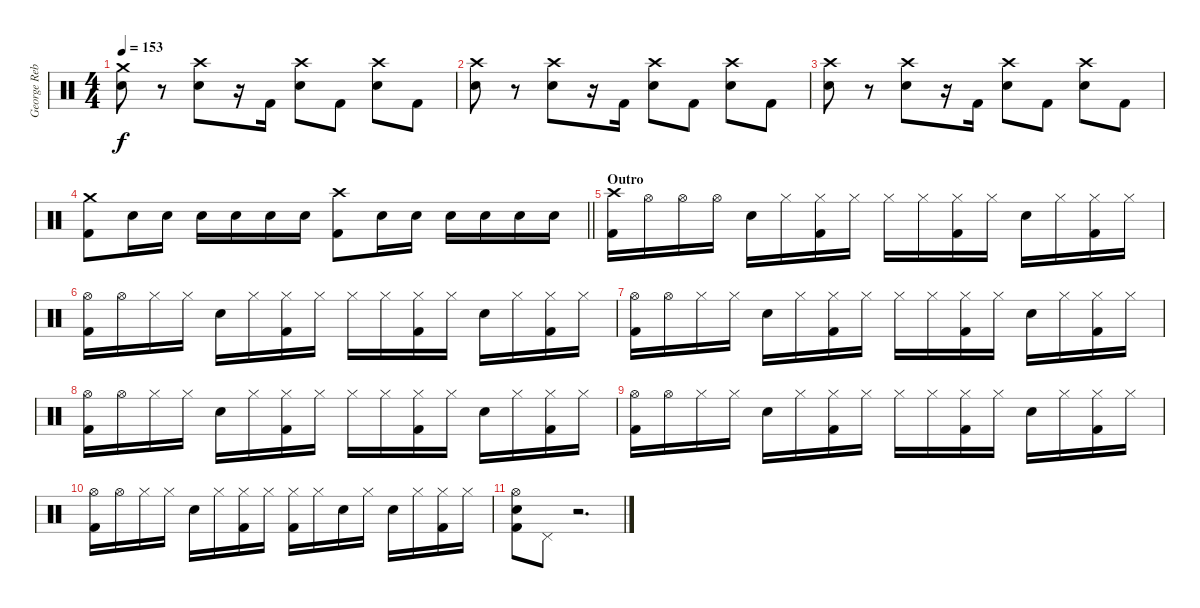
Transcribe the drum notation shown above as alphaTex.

\track ("George Rebelo (Drums)" "George Reb") {instrument percussion}
\staff {score}
\articulation defaults
\ts (4 4)
\tempo 153
\clef neutral
\ks c
("Crash medium (hit)" "Electric Snare (hit)").8{dy f} r.8 ("Crash high (hit)" "Electric Snare (hit)").8 r.16 "Kick (hit) 2".16 ("Crash high (hit)" "Electric Snare (hit)").8 "Kick (hit) 2".8 ("Crash high (hit)" "Electric Snare (hit)").8 "Kick (hit) 2".8 |
("Crash high (hit)" "Electric Snare (hit)").8 r.8 ("Crash high (hit)" "Electric Snare (hit)").8 r.16 "Kick (hit) 2".16 ("Crash high (hit)" "Electric Snare (hit)").8 "Kick (hit) 2".8 ("Crash high (hit)" "Electric Snare (hit)").8 "Kick (hit) 2".8 |
("Crash high (hit)" "Electric Snare (hit)").8 r.8 ("Crash high (hit)" "Electric Snare (hit)").8 r.16 "Kick (hit) 2".16 ("Crash high (hit)" "Electric Snare (hit)").8 "Kick (hit) 2".8 ("Crash high (hit)" "Electric Snare (hit)").8 "Kick (hit) 2".8 |
\barLineRight lightlight
("Crash medium (hit)" "Kick (hit) 2").8 "Electric Snare (hit)".16 "Electric Snare (hit)".16 "Electric Snare (hit)".16 "Electric Snare (hit)".16 "Electric Snare (hit)".16 "Electric Snare (hit)".16 ("Crash high (hit)" "Kick (hit) 2").8 "Electric Snare (hit)".16 "Electric Snare (hit)".16 "Electric Snare (hit)".16 "Electric Snare (hit)".16 "Electric Snare (hit)".16 "Electric Snare (hit)".16 |
\section ("" "Outro")
("Crash high (hit)" "Kick (hit) 2").16 "Hi-Hat (open)".16 "Hi-Hat (open)".16 "Hi-Hat (open)".16 "Electric Snare (hit)".16 "Hi-Hat (closed)".16 ("Hi-Hat (closed)" "Kick (hit) 2").16 "Hi-Hat (closed)".16 "Hi-Hat (closed)".16 "Hi-Hat (closed)".16 ("Hi-Hat (closed)" "Kick (hit) 2").16 "Hi-Hat (closed)".16 "Electric Snare (hit)".16 "Hi-Hat (closed)".16 ("Hi-Hat (closed)" "Kick (hit) 2").16 "Hi-Hat (closed)".16 |
("Hi-Hat (open)" "Kick (hit) 2").16 "Hi-Hat (open)".16 "Hi-Hat (closed)".16 "Hi-Hat (closed)".16 "Electric Snare (hit)".16 "Hi-Hat (closed)".16 ("Hi-Hat (closed)" "Kick (hit) 2").16 "Hi-Hat (closed)".16 "Hi-Hat (closed)".16 "Hi-Hat (closed)".16 ("Hi-Hat (closed)" "Kick (hit) 2").16 "Hi-Hat (closed)".16 "Electric Snare (hit)".16 "Hi-Hat (closed)".16 ("Hi-Hat (closed)" "Kick (hit) 2").16 "Hi-Hat (closed)".16 |
("Hi-Hat (open)" "Kick (hit) 2").16 "Hi-Hat (open)".16 "Hi-Hat (closed)".16 "Hi-Hat (closed)".16 "Electric Snare (hit)".16 "Hi-Hat (closed)".16 ("Hi-Hat (closed)" "Kick (hit) 2").16 "Hi-Hat (closed)".16 "Hi-Hat (closed)".16 "Hi-Hat (closed)".16 ("Hi-Hat (closed)" "Kick (hit) 2").16 "Hi-Hat (closed)".16 "Electric Snare (hit)".16 "Hi-Hat (closed)".16 ("Hi-Hat (closed)" "Kick (hit) 2").16 "Hi-Hat (closed)".16 |
("Hi-Hat (open)" "Kick (hit) 2").16 "Hi-Hat (open)".16 "Hi-Hat (closed)".16 "Hi-Hat (closed)".16 "Electric Snare (hit)".16 "Hi-Hat (closed)".16 ("Hi-Hat (closed)" "Kick (hit) 2").16 "Hi-Hat (closed)".16 "Hi-Hat (closed)".16 "Hi-Hat (closed)".16 ("Hi-Hat (closed)" "Kick (hit) 2").16 "Hi-Hat (closed)".16 "Electric Snare (hit)".16 "Hi-Hat (closed)".16 ("Hi-Hat (closed)" "Kick (hit) 2").16 "Hi-Hat (closed)".16 |
("Hi-Hat (open)" "Kick (hit) 2").16 "Hi-Hat (open)".16 "Hi-Hat (closed)".16 "Hi-Hat (closed)".16 "Electric Snare (hit)".16 "Hi-Hat (closed)".16 ("Hi-Hat (closed)" "Kick (hit) 2").16 "Hi-Hat (closed)".16 "Hi-Hat (closed)".16 "Hi-Hat (closed)".16 ("Hi-Hat (closed)" "Kick (hit) 2").16 "Hi-Hat (closed)".16 "Electric Snare (hit)".16 "Hi-Hat (closed)".16 ("Hi-Hat (closed)" "Kick (hit) 2").16 "Hi-Hat (closed)".16 |
("Hi-Hat (open)" "Kick (hit) 2").16 "Hi-Hat (open)".16 "Hi-Hat (closed)".16 "Hi-Hat (closed)".16 "Electric Snare (hit)".16 "Hi-Hat (closed)".16 ("Hi-Hat (closed)" "Kick (hit) 2").16 "Hi-Hat (closed)".16 ("Hi-Hat (closed)" "Kick (hit) 2").16 "Hi-Hat (closed)".16 "Electric Snare (hit)".16 "Hi-Hat (closed)".16 "Electric Snare (hit)".16 "Hi-Hat (closed)".16 ("Hi-Hat (closed)" "Kick (hit) 2").16 "Hi-Hat (closed)".16 |
("Hi-Hat (open)" "Electric Snare (hit)" "Kick (hit) 2").8 "Pedal Hi-Hat (hit)".8 r.2{d}
